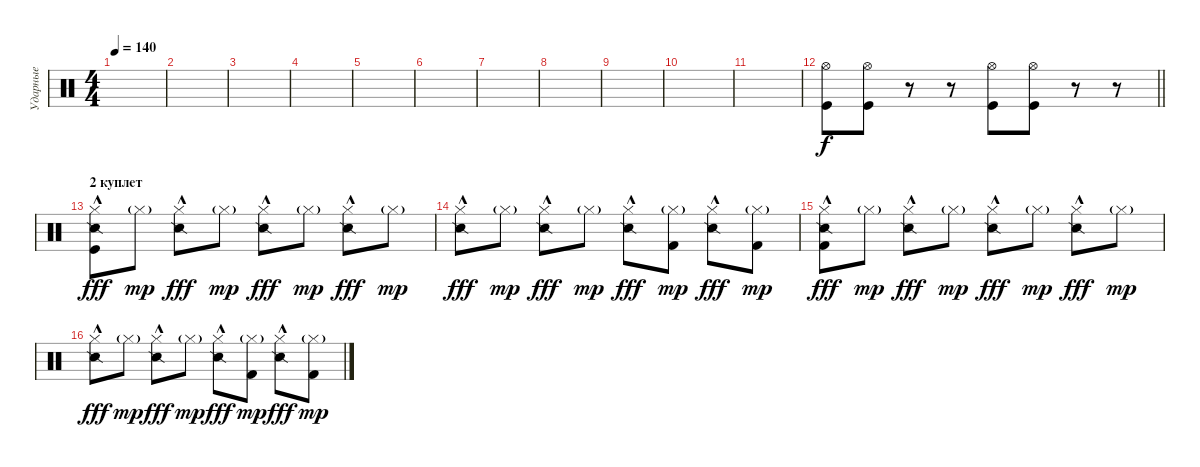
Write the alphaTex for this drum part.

\track ("Ударные" "Ударные") {instrument percussion}
\staff {score}
\articulation defaults
\ts (4 4)
\tempo 140
\clef neutral
\ks c
|
|
|
|
|
|
|
|
|
|
|
\barLineRight lightlight
("Hi-Hat (open)" "Kick (hit)").8 ("Hi-Hat (open)" "Kick (hit)").8 r.8 r.8 ("Hi-Hat (open)" "Kick (hit)").8 ("Hi-Hat (open)" "Kick (hit)").8 r.8 r.8 |
\section ("" "2 куплет")
("Hi-Hat (closed)"{hac} "Snare (side stick) 2" "Kick (hit)").8{dy fff} "Hi-Hat (closed)"{g}.8{dy mp} ("Hi-Hat (closed)"{hac} "Snare (side stick) 2").8{dy fff} "Hi-Hat (closed)"{g}.8{dy mp} ("Hi-Hat (closed)"{hac} "Snare (side stick) 2").8{dy fff} "Hi-Hat (closed)"{g}.8{dy mp} ("Hi-Hat (closed)"{hac} "Snare (side stick) 2").8{dy fff} "Hi-Hat (closed)"{g}.8{dy mp} |
("Hi-Hat (closed)"{hac} "Snare (side stick) 2").8{dy fff} "Hi-Hat (closed)"{g}.8{dy mp} ("Hi-Hat (closed)"{hac} "Snare (side stick) 2").8{dy fff} "Hi-Hat (closed)"{g}.8{dy mp} ("Hi-Hat (closed)"{hac} "Snare (side stick) 2").8{dy fff} ("Hi-Hat (closed)"{g} "Kick (hit) 2").8{dy mp} ("Hi-Hat (closed)"{hac} "Snare (side stick) 2").8{dy fff} ("Hi-Hat (closed)"{g} "Kick (hit) 2").8{dy mp} |
("Hi-Hat (closed)"{hac} "Snare (side stick) 2" "Kick (hit) 2").8{dy fff} "Hi-Hat (closed)"{g}.8{dy mp} ("Hi-Hat (closed)"{hac} "Snare (side stick) 2").8{dy fff} "Hi-Hat (closed)"{g}.8{dy mp} ("Hi-Hat (closed)"{hac} "Snare (side stick) 2").8{dy fff} "Hi-Hat (closed)"{g}.8{dy mp} ("Hi-Hat (closed)"{hac} "Snare (side stick) 2").8{dy fff} "Hi-Hat (closed)"{g}.8{dy mp} |
("Hi-Hat (closed)"{hac} "Snare (side stick) 2").8{dy fff} "Hi-Hat (closed)"{g}.8{dy mp} ("Hi-Hat (closed)"{hac} "Snare (side stick) 2").8{dy fff} "Hi-Hat (closed)"{g}.8{dy mp} ("Hi-Hat (closed)"{hac} "Snare (side stick) 2").8{dy fff} ("Hi-Hat (closed)"{g} "Kick (hit) 2").8{dy mp} ("Hi-Hat (closed)"{hac} "Snare (side stick) 2").8{dy fff} ("Hi-Hat (closed)"{g} "Kick (hit) 2").8{dy mp}
